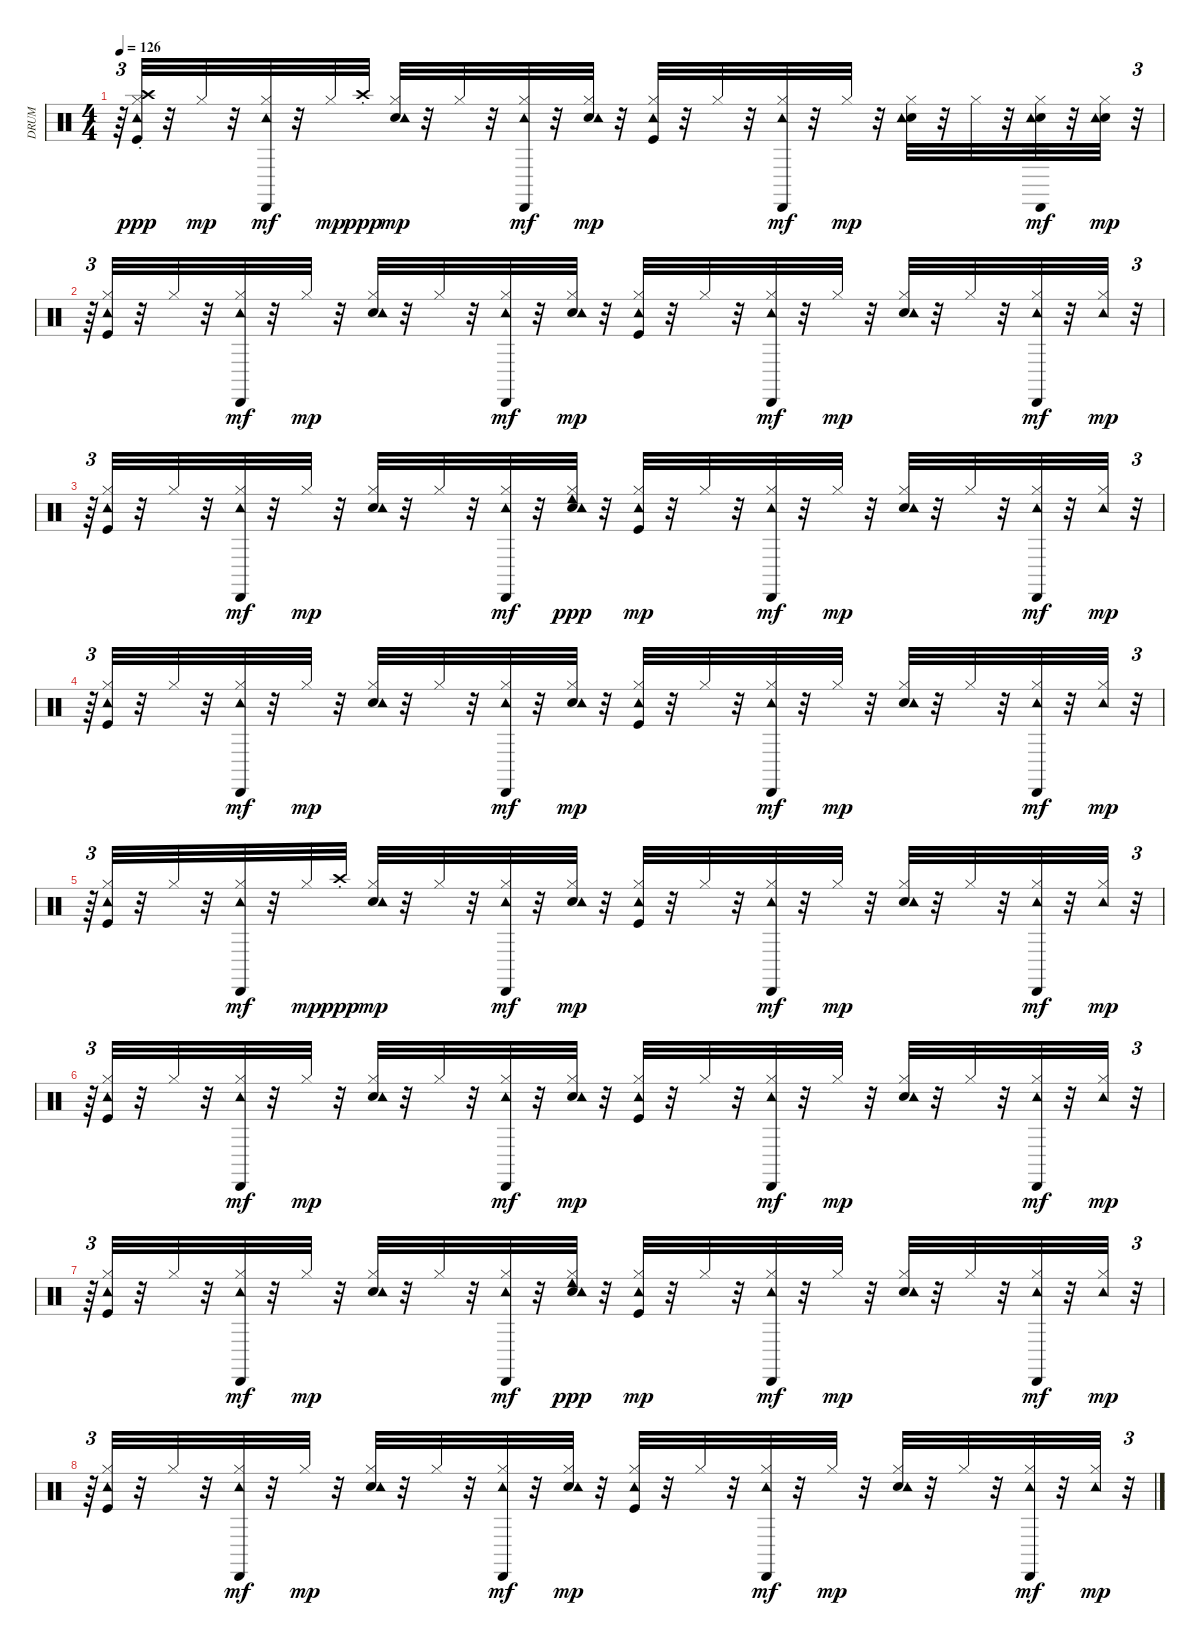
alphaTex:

\track ("DRUM" "DRUM") {instrument percussion}
\staff {score}
\articulation defaults
\ts (4 4)
\tempo 126
\clef neutral
\ks c
r.64{tu (3 2) dy mp} ("Kick (hit)" "Hi-Hat (closed)" "Tambourine (hit)" "Crash high (choke)").32{dy ppp} r.32 "Hi-Hat (closed)".32{dy mp} r.32 ("Hi-Hat (closed)" "Tambourine (hit)" "Cabasa (hit)").32{dy mf} r.32 "Hi-Hat (closed)".32{dy mp} "Crash high (choke)".32{dy ppp} ("Snare (hit) 2" "Hi-Hat (closed)" "Tambourine (hit)").32{dy mp} r.32 "Hi-Hat (closed)".32 r.32 ("Hi-Hat (closed)" "Tambourine (hit)" "Cabasa (hit)").32{dy mf} r.32 ("Snare (hit) 2" "Hi-Hat (closed)" "Tambourine (hit)").32{dy mp} r.32 ("Kick (hit)" "Hi-Hat (closed)" "Tambourine (hit)").32 r.32 "Hi-Hat (closed)".32 r.32 ("Hi-Hat (closed)" "Tambourine (hit)" "Cabasa (hit)").32{dy mf} r.32 "Hi-Hat (closed)".32{dy mp} r.32 ("Snare (hit) 2" "Hi-Hat (closed)" "Tambourine (hit)").32 r.32 "Hi-Hat (closed)".32 r.32 ("Snare (hit) 2" "Hi-Hat (closed)" "Tambourine (hit)" "Cabasa (hit)").32{dy mf} r.32 ("Snare (hit) 2" "Hi-Hat (closed)" "Tambourine (hit)").32{dy mp} r.32{tu (3 2)} |
r.64{tu (3 2)} ("Kick (hit)" "Hi-Hat (closed)" "Tambourine (hit)").32 r.32 "Hi-Hat (closed)".32 r.32 ("Hi-Hat (closed)" "Tambourine (hit)" "Cabasa (hit)").32{dy mf} r.32 "Hi-Hat (closed)".32{dy mp} r.32 ("Snare (hit) 2" "Hi-Hat (closed)" "Tambourine (hit)").32 r.32 "Hi-Hat (closed)".32 r.32 ("Hi-Hat (closed)" "Tambourine (hit)" "Cabasa (hit)").32{dy mf} r.32 ("Snare (hit) 2" "Hi-Hat (closed)" "Tambourine (hit)").32{dy mp} r.32 ("Kick (hit)" "Hi-Hat (closed)" "Tambourine (hit)").32 r.32 "Hi-Hat (closed)".32 r.32 ("Hi-Hat (closed)" "Tambourine (hit)" "Cabasa (hit)").32{dy mf} r.32 "Hi-Hat (closed)".32{dy mp} r.32 ("Snare (hit) 2" "Hi-Hat (closed)" "Tambourine (hit)").32 r.32 "Hi-Hat (closed)".32 r.32 ("Hi-Hat (closed)" "Tambourine (hit)" "Cabasa (hit)").32{dy mf} r.32 ("Hi-Hat (closed)" "Tambourine (hit)").32{dy mp} r.32{tu (3 2)} |
r.64{tu (3 2)} ("Kick (hit)" "Hi-Hat (closed)" "Tambourine (hit)").32 r.32 "Hi-Hat (closed)".32 r.32 ("Hi-Hat (closed)" "Tambourine (hit)" "Cabasa (hit)").32{dy mf} r.32 "Hi-Hat (closed)".32{dy mp} r.32 ("Snare (hit) 2" "Hi-Hat (closed)" "Tambourine (hit)").32 r.32 "Hi-Hat (closed)".32 r.32 ("Hi-Hat (closed)" "Tambourine (hit)" "Cabasa (hit)").32{dy mf} r.32 ("Snare (hit) 2" "Hi-Hat (closed)" "Tambourine (hit)" "Cowbell low (hit)").32{dy ppp} r.32 ("Kick (hit)" "Hi-Hat (closed)" "Tambourine (hit)").32{dy mp} r.32 "Hi-Hat (closed)".32 r.32 ("Hi-Hat (closed)" "Tambourine (hit)" "Cabasa (hit)").32{dy mf} r.32 "Hi-Hat (closed)".32{dy mp} r.32 ("Snare (hit) 2" "Hi-Hat (closed)" "Tambourine (hit)").32 r.32 "Hi-Hat (closed)".32 r.32 ("Hi-Hat (closed)" "Tambourine (hit)" "Cabasa (hit)").32{dy mf} r.32 ("Hi-Hat (closed)" "Tambourine (hit)").32{dy mp} r.32{tu (3 2)} |
r.64{tu (3 2)} ("Kick (hit)" "Hi-Hat (closed)" "Tambourine (hit)").32 r.32 "Hi-Hat (closed)".32 r.32 ("Hi-Hat (closed)" "Tambourine (hit)" "Cabasa (hit)").32{dy mf} r.32 "Hi-Hat (closed)".32{dy mp} r.32 ("Snare (hit) 2" "Hi-Hat (closed)" "Tambourine (hit)").32 r.32 "Hi-Hat (closed)".32 r.32 ("Hi-Hat (closed)" "Tambourine (hit)" "Cabasa (hit)").32{dy mf} r.32 ("Snare (hit) 2" "Hi-Hat (closed)" "Tambourine (hit)").32{dy mp} r.32 ("Kick (hit)" "Hi-Hat (closed)" "Tambourine (hit)").32 r.32 "Hi-Hat (closed)".32 r.32 ("Hi-Hat (closed)" "Tambourine (hit)" "Cabasa (hit)").32{dy mf} r.32 "Hi-Hat (closed)".32{dy mp} r.32 ("Snare (hit) 2" "Hi-Hat (closed)" "Tambourine (hit)").32 r.32 "Hi-Hat (closed)".32 r.32 ("Hi-Hat (closed)" "Tambourine (hit)" "Cabasa (hit)").32{dy mf} r.32 ("Hi-Hat (closed)" "Tambourine (hit)").32{dy mp} r.32{tu (3 2)} |
r.64{tu (3 2)} ("Kick (hit)" "Hi-Hat (closed)" "Tambourine (hit)").32 r.32 "Hi-Hat (closed)".32 r.32 ("Hi-Hat (closed)" "Tambourine (hit)" "Cabasa (hit)").32{dy mf} r.32 "Hi-Hat (closed)".32{dy mp} "Crash high (choke)".32{dy ppp} ("Snare (hit) 2" "Hi-Hat (closed)" "Tambourine (hit)").32{dy mp} r.32 "Hi-Hat (closed)".32 r.32 ("Hi-Hat (closed)" "Tambourine (hit)" "Cabasa (hit)").32{dy mf} r.32 ("Snare (hit) 2" "Hi-Hat (closed)" "Tambourine (hit)").32{dy mp} r.32 ("Kick (hit)" "Hi-Hat (closed)" "Tambourine (hit)").32 r.32 "Hi-Hat (closed)".32 r.32 ("Hi-Hat (closed)" "Tambourine (hit)" "Cabasa (hit)").32{dy mf} r.32 "Hi-Hat (closed)".32{dy mp} r.32 ("Snare (hit) 2" "Hi-Hat (closed)" "Tambourine (hit)").32 r.32 "Hi-Hat (closed)".32 r.32 ("Hi-Hat (closed)" "Tambourine (hit)" "Cabasa (hit)").32{dy mf} r.32 ("Hi-Hat (closed)" "Tambourine (hit)").32{dy mp} r.32{tu (3 2)} |
r.64{tu (3 2)} ("Kick (hit)" "Hi-Hat (closed)" "Tambourine (hit)").32 r.32 "Hi-Hat (closed)".32 r.32 ("Hi-Hat (closed)" "Tambourine (hit)" "Cabasa (hit)").32{dy mf} r.32 "Hi-Hat (closed)".32{dy mp} r.32 ("Snare (hit) 2" "Hi-Hat (closed)" "Tambourine (hit)").32 r.32 "Hi-Hat (closed)".32 r.32 ("Hi-Hat (closed)" "Tambourine (hit)" "Cabasa (hit)").32{dy mf} r.32 ("Snare (hit) 2" "Hi-Hat (closed)" "Tambourine (hit)").32{dy mp} r.32 ("Kick (hit)" "Hi-Hat (closed)" "Tambourine (hit)").32 r.32 "Hi-Hat (closed)".32 r.32 ("Hi-Hat (closed)" "Tambourine (hit)" "Cabasa (hit)").32{dy mf} r.32 "Hi-Hat (closed)".32{dy mp} r.32 ("Snare (hit) 2" "Hi-Hat (closed)" "Tambourine (hit)").32 r.32 "Hi-Hat (closed)".32 r.32 ("Hi-Hat (closed)" "Tambourine (hit)" "Cabasa (hit)").32{dy mf} r.32 ("Hi-Hat (closed)" "Tambourine (hit)").32{dy mp} r.32{tu (3 2)} |
r.64{tu (3 2)} ("Kick (hit)" "Hi-Hat (closed)" "Tambourine (hit)").32 r.32 "Hi-Hat (closed)".32 r.32 ("Hi-Hat (closed)" "Tambourine (hit)" "Cabasa (hit)").32{dy mf} r.32 "Hi-Hat (closed)".32{dy mp} r.32 ("Snare (hit) 2" "Hi-Hat (closed)" "Tambourine (hit)").32 r.32 "Hi-Hat (closed)".32 r.32 ("Hi-Hat (closed)" "Tambourine (hit)" "Cabasa (hit)").32{dy mf} r.32 ("Snare (hit) 2" "Hi-Hat (closed)" "Tambourine (hit)" "Cowbell low (hit)").32{dy ppp} r.32 ("Kick (hit)" "Hi-Hat (closed)" "Tambourine (hit)").32{dy mp} r.32 "Hi-Hat (closed)".32 r.32 ("Hi-Hat (closed)" "Tambourine (hit)" "Cabasa (hit)").32{dy mf} r.32 "Hi-Hat (closed)".32{dy mp} r.32 ("Snare (hit) 2" "Hi-Hat (closed)" "Tambourine (hit)").32 r.32 "Hi-Hat (closed)".32 r.32 ("Hi-Hat (closed)" "Tambourine (hit)" "Cabasa (hit)").32{dy mf} r.32 ("Hi-Hat (closed)" "Tambourine (hit)").32{dy mp} r.32{tu (3 2)} |
r.64{tu (3 2)} ("Kick (hit)" "Hi-Hat (closed)" "Tambourine (hit)").32 r.32 "Hi-Hat (closed)".32 r.32 ("Hi-Hat (closed)" "Tambourine (hit)" "Cabasa (hit)").32{dy mf} r.32 "Hi-Hat (closed)".32{dy mp} r.32 ("Snare (hit) 2" "Hi-Hat (closed)" "Tambourine (hit)").32 r.32 "Hi-Hat (closed)".32 r.32 ("Hi-Hat (closed)" "Tambourine (hit)" "Cabasa (hit)").32{dy mf} r.32 ("Snare (hit) 2" "Hi-Hat (closed)" "Tambourine (hit)").32{dy mp} r.32 ("Kick (hit)" "Hi-Hat (closed)" "Tambourine (hit)").32 r.32 "Hi-Hat (closed)".32 r.32 ("Hi-Hat (closed)" "Tambourine (hit)" "Cabasa (hit)").32{dy mf} r.32 "Hi-Hat (closed)".32{dy mp} r.32 ("Snare (hit) 2" "Hi-Hat (closed)" "Tambourine (hit)").32 r.32 "Hi-Hat (closed)".32 r.32 ("Hi-Hat (closed)" "Tambourine (hit)" "Cabasa (hit)").32{dy mf} r.32 ("Hi-Hat (closed)" "Tambourine (hit)").32{dy mp} r.32{tu (3 2)}
